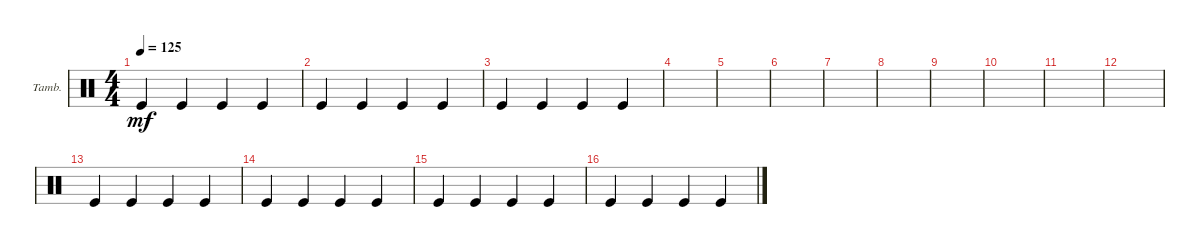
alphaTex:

\defaultSystemsLayout 4
\bracketExtendMode groupsimilarinstruments
\firstSystemTrackNameOrientation horizontal
\otherSystemsTrackNameOrientation horizontal
\track ("Tambourine" "Tamb.") {instrument percussion}
\staff {score}
\articulation defaults
\ts (4 4)
\tempo 125
\clef neutral
\ks c "Kick (hit)".4{dy mf} "Kick (hit)".4 "Kick (hit)".4 "Kick (hit)".4
|
"Kick (hit)".4 "Kick (hit)".4 "Kick (hit)".4 "Kick (hit)".4 |
"Kick (hit)".4 "Kick (hit)".4 "Kick (hit)".4 "Kick (hit)".4 |
|
|
|
|
|
|
|
|
|
"Kick (hit)".4 "Kick (hit)".4 "Kick (hit)".4 "Kick (hit)".4 |
"Kick (hit)".4 "Kick (hit)".4 "Kick (hit)".4 "Kick (hit)".4 |
"Kick (hit)".4 "Kick (hit)".4 "Kick (hit)".4 "Kick (hit)".4 |
"Kick (hit)".4 "Kick (hit)".4 "Kick (hit)".4 "Kick (hit)".4
